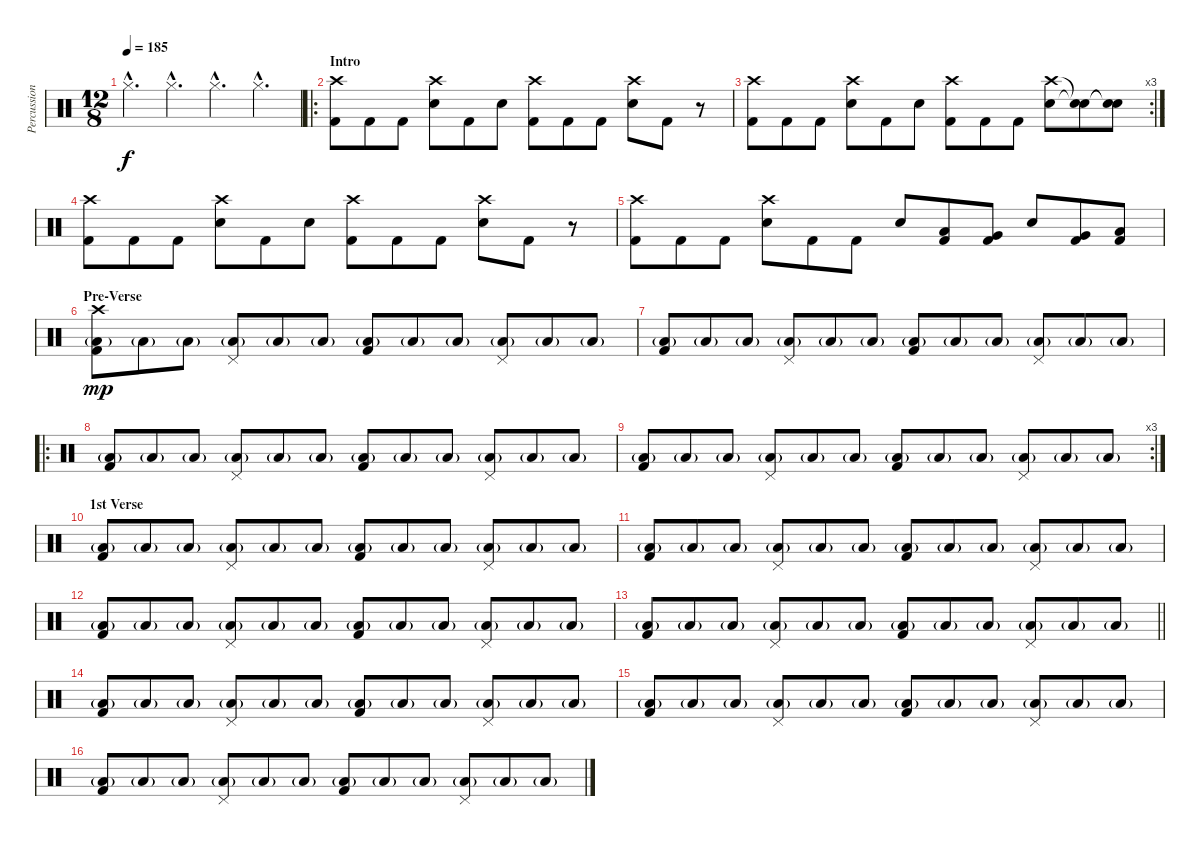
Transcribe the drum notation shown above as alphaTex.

\track ("Percussion" "Percussion") {instrument percussion}
\staff {score}
\articulation defaults
\ts (12 8)
\tempo 185
\clef neutral
\ks c "Hi-Hat (closed)"{hac}.4{d dy f} "Hi-Hat (closed)"{hac}.4{d} "Hi-Hat (closed)"{hac}.4{d} "Hi-Hat (closed)"{hac}.4{d}
|
\ro
\section ("" "Intro")
("Crash high (hit)" "Kick (hit) 2").8 "Kick (hit) 2".8 "Kick (hit) 2".8 ("Crash high (hit)" "Electric Snare (hit)").8 "Kick (hit) 2".8 "Electric Snare (hit)".8 ("Crash high (hit)" "Kick (hit) 2").8 "Kick (hit) 2".8 "Kick (hit) 2".8 ("Crash high (hit)" "Electric Snare (hit)").8 "Kick (hit) 2".8 r.8 |
\rc 3
("Crash high (hit)" "Kick (hit) 2").8 "Kick (hit) 2".8 "Kick (hit) 2".8 ("Crash high (hit)" "Electric Snare (hit)").8 "Kick (hit) 2".8 "Electric Snare (hit)".8 ("Crash high (hit)" "Kick (hit) 2").8 "Kick (hit) 2".8 "Kick (hit) 2".8 ("Crash high (hit)" "Electric Snare (hit)").8 ("Snare (hit)"{t} "Snare (hit)"{t}).8 ("Snare (hit)"{t} "Snare (hit)"{t}).8 |
("Crash high (hit)" "Kick (hit) 2").8 "Kick (hit) 2".8 "Kick (hit) 2".8 ("Crash high (hit)" "Electric Snare (hit)").8 "Kick (hit) 2".8 "Electric Snare (hit)".8 ("Crash high (hit)" "Kick (hit) 2").8 "Kick (hit) 2".8 "Kick (hit) 2".8 ("Crash high (hit)" "Electric Snare (hit)").8 "Kick (hit) 2".8 r.8 |
("Crash high (hit)" "Kick (hit) 2").8 "Kick (hit) 2".8 "Kick (hit) 2".8 ("Crash high (hit)" "Electric Snare (hit)").8 "Kick (hit) 2".8 "Kick (hit) 2".8 "Electric Snare (hit)".8 ("Low Tom (hit)" "Kick (hit) 2").8 ("Very Low Tom (hit)" "Kick (hit) 2").8 "Electric Snare (hit)".8 ("Very Low Tom (hit)" "Kick (hit) 2").8 ("Low Floor Tom (hit)" "Kick (hit) 2").8 |
\section ("" "Pre-Verse")
("Crash high (hit)" "Low Floor Tom (hit)"{g} "Kick (hit) 2").8{dy mp} "Low Floor Tom (hit)"{g}.8 "Low Floor Tom (hit)"{g}.8 ("Low Floor Tom (hit)"{g} "Pedal Hi-Hat (hit)").8 "Low Floor Tom (hit)"{g}.8 "Low Floor Tom (hit)"{g}.8 ("Low Floor Tom (hit)"{g} "Kick (hit) 2").8 "Low Floor Tom (hit)"{g}.8 "Low Floor Tom (hit)"{g}.8 ("Low Floor Tom (hit)"{g} "Pedal Hi-Hat (hit)").8 "Low Floor Tom (hit)"{g}.8 "Low Floor Tom (hit)"{g}.8 |
("Low Floor Tom (hit)"{g} "Kick (hit) 2").8 "Low Floor Tom (hit)"{g}.8 "Low Floor Tom (hit)"{g}.8 ("Low Floor Tom (hit)"{g} "Pedal Hi-Hat (hit)").8 "Low Floor Tom (hit)"{g}.8 "Low Floor Tom (hit)"{g}.8 ("Low Floor Tom (hit)"{g} "Kick (hit) 2").8 "Low Floor Tom (hit)"{g}.8 "Low Floor Tom (hit)"{g}.8 ("Low Floor Tom (hit)"{g} "Pedal Hi-Hat (hit)").8 "Low Floor Tom (hit)"{g}.8 "Low Floor Tom (hit)"{g}.8 |
\ro
("Low Floor Tom (hit)"{g} "Kick (hit) 2").8 "Low Floor Tom (hit)"{g}.8 "Low Floor Tom (hit)"{g}.8 ("Low Floor Tom (hit)"{g} "Pedal Hi-Hat (hit)").8 "Low Floor Tom (hit)"{g}.8 "Low Floor Tom (hit)"{g}.8 ("Low Floor Tom (hit)"{g} "Kick (hit) 2").8 "Low Floor Tom (hit)"{g}.8 "Low Floor Tom (hit)"{g}.8 ("Low Floor Tom (hit)"{g} "Pedal Hi-Hat (hit)").8 "Low Floor Tom (hit)"{g}.8 "Low Floor Tom (hit)"{g}.8 |
\rc 3
("Low Floor Tom (hit)"{g} "Kick (hit) 2").8 "Low Floor Tom (hit)"{g}.8 "Low Floor Tom (hit)"{g}.8 ("Low Floor Tom (hit)"{g} "Pedal Hi-Hat (hit)").8 "Low Floor Tom (hit)"{g}.8 "Low Floor Tom (hit)"{g}.8 ("Low Floor Tom (hit)"{g} "Kick (hit) 2").8 "Low Floor Tom (hit)"{g}.8 "Low Floor Tom (hit)"{g}.8 ("Low Floor Tom (hit)"{g} "Pedal Hi-Hat (hit)").8 "Low Floor Tom (hit)"{g}.8 "Low Floor Tom (hit)"{g}.8 |
\section ("" "1st Verse")
("Low Floor Tom (hit)"{g} "Kick (hit) 2").8 "Low Floor Tom (hit)"{g}.8 "Low Floor Tom (hit)"{g}.8 ("Low Floor Tom (hit)"{g} "Pedal Hi-Hat (hit)").8 "Low Floor Tom (hit)"{g}.8 "Low Floor Tom (hit)"{g}.8 ("Low Floor Tom (hit)"{g} "Kick (hit) 2").8 "Low Floor Tom (hit)"{g}.8 "Low Floor Tom (hit)"{g}.8 ("Low Floor Tom (hit)"{g} "Pedal Hi-Hat (hit)").8 "Low Floor Tom (hit)"{g}.8 "Low Floor Tom (hit)"{g}.8 |
("Low Floor Tom (hit)"{g} "Kick (hit) 2").8 "Low Floor Tom (hit)"{g}.8 "Low Floor Tom (hit)"{g}.8 ("Low Floor Tom (hit)"{g} "Pedal Hi-Hat (hit)").8 "Low Floor Tom (hit)"{g}.8 "Low Floor Tom (hit)"{g}.8 ("Low Floor Tom (hit)"{g} "Kick (hit) 2").8 "Low Floor Tom (hit)"{g}.8 "Low Floor Tom (hit)"{g}.8 ("Low Floor Tom (hit)"{g} "Pedal Hi-Hat (hit)").8 "Low Floor Tom (hit)"{g}.8 "Low Floor Tom (hit)"{g}.8 |
("Low Floor Tom (hit)"{g} "Kick (hit) 2").8 "Low Floor Tom (hit)"{g}.8 "Low Floor Tom (hit)"{g}.8 ("Low Floor Tom (hit)"{g} "Pedal Hi-Hat (hit)").8 "Low Floor Tom (hit)"{g}.8 "Low Floor Tom (hit)"{g}.8 ("Low Floor Tom (hit)"{g} "Kick (hit) 2").8 "Low Floor Tom (hit)"{g}.8 "Low Floor Tom (hit)"{g}.8 ("Low Floor Tom (hit)"{g} "Pedal Hi-Hat (hit)").8 "Low Floor Tom (hit)"{g}.8 "Low Floor Tom (hit)"{g}.8 |
\barLineRight lightlight
("Low Floor Tom (hit)"{g} "Kick (hit) 2").8 "Low Floor Tom (hit)"{g}.8 "Low Floor Tom (hit)"{g}.8 ("Low Floor Tom (hit)"{g} "Pedal Hi-Hat (hit)").8 "Low Floor Tom (hit)"{g}.8 "Low Floor Tom (hit)"{g}.8 ("Low Floor Tom (hit)"{g} "Kick (hit) 2").8 "Low Floor Tom (hit)"{g}.8 "Low Floor Tom (hit)"{g}.8 ("Low Floor Tom (hit)"{g} "Pedal Hi-Hat (hit)").8 "Low Floor Tom (hit)"{g}.8 "Low Floor Tom (hit)"{g}.8 |
("Low Floor Tom (hit)"{g} "Kick (hit) 2").8 "Low Floor Tom (hit)"{g}.8 "Low Floor Tom (hit)"{g}.8 ("Low Floor Tom (hit)"{g} "Pedal Hi-Hat (hit)").8 "Low Floor Tom (hit)"{g}.8 "Low Floor Tom (hit)"{g}.8 ("Low Floor Tom (hit)"{g} "Kick (hit) 2").8 "Low Floor Tom (hit)"{g}.8 "Low Floor Tom (hit)"{g}.8 ("Low Floor Tom (hit)"{g} "Pedal Hi-Hat (hit)").8 "Low Floor Tom (hit)"{g}.8 "Low Floor Tom (hit)"{g}.8 |
("Low Floor Tom (hit)"{g} "Kick (hit) 2").8 "Low Floor Tom (hit)"{g}.8 "Low Floor Tom (hit)"{g}.8 ("Low Floor Tom (hit)"{g} "Pedal Hi-Hat (hit)").8 "Low Floor Tom (hit)"{g}.8 "Low Floor Tom (hit)"{g}.8 ("Low Floor Tom (hit)"{g} "Kick (hit) 2").8 "Low Floor Tom (hit)"{g}.8 "Low Floor Tom (hit)"{g}.8 ("Low Floor Tom (hit)"{g} "Pedal Hi-Hat (hit)").8 "Low Floor Tom (hit)"{g}.8 "Low Floor Tom (hit)"{g}.8 |
("Low Floor Tom (hit)"{g} "Kick (hit) 2").8 "Low Floor Tom (hit)"{g}.8 "Low Floor Tom (hit)"{g}.8 ("Low Floor Tom (hit)"{g} "Pedal Hi-Hat (hit)").8 "Low Floor Tom (hit)"{g}.8 "Low Floor Tom (hit)"{g}.8 ("Low Floor Tom (hit)"{g} "Kick (hit) 2").8 "Low Floor Tom (hit)"{g}.8 "Low Floor Tom (hit)"{g}.8 ("Low Floor Tom (hit)"{g} "Pedal Hi-Hat (hit)").8 "Low Floor Tom (hit)"{g}.8 "Low Floor Tom (hit)"{g}.8
